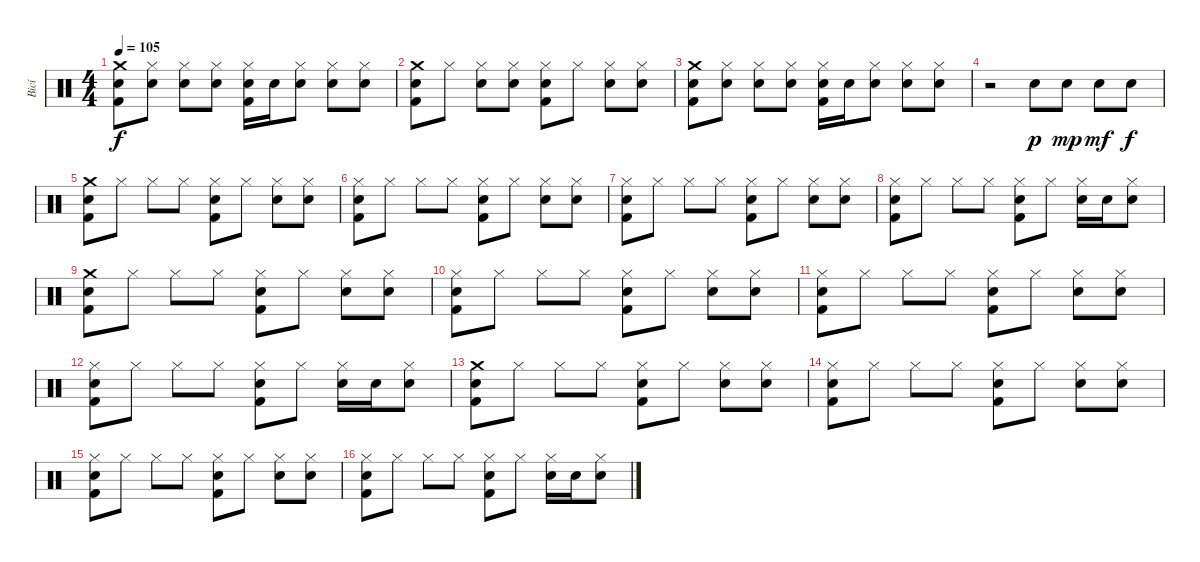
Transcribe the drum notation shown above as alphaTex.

\track ("Bicí" "Bicí") {instrument percussion}
\staff {score}
\articulation defaults
\ts (4 4)
\tempo 105
\clef neutral
\ks c
("Crash medium (hit)" "Electric Snare (hit)" "Kick (hit) 2").8{dy f} ("Hi-Hat (closed)" "Electric Snare (hit)").8 ("Hi-Hat (closed)" "Electric Snare (hit)").8 ("Hi-Hat (closed)" "Electric Snare (hit)").8 ("Hi-Hat (closed)" "Electric Snare (hit)" "Kick (hit) 2").16 "Electric Snare (hit)".16 ("Hi-Hat (closed)" "Electric Snare (hit)").8 ("Hi-Hat (closed)" "Electric Snare (hit)").8 ("Hi-Hat (closed)" "Electric Snare (hit)").8 |
("Crash medium (hit)" "Electric Snare (hit)" "Kick (hit) 2").8 "Hi-Hat (closed)".8 ("Hi-Hat (closed)" "Electric Snare (hit)").8 ("Hi-Hat (closed)" "Electric Snare (hit)").8 ("Hi-Hat (closed)" "Electric Snare (hit)" "Kick (hit) 2").8 "Hi-Hat (closed)".8 ("Hi-Hat (closed)" "Electric Snare (hit)").8 ("Hi-Hat (closed)" "Electric Snare (hit)").8 |
("Crash medium (hit)" "Electric Snare (hit)" "Kick (hit) 2").8 ("Hi-Hat (closed)" "Electric Snare (hit)").8 ("Hi-Hat (closed)" "Electric Snare (hit)").8 ("Hi-Hat (closed)" "Electric Snare (hit)").8 ("Hi-Hat (closed)" "Electric Snare (hit)" "Kick (hit) 2").16 "Electric Snare (hit)".16 ("Hi-Hat (closed)" "Electric Snare (hit)").8 ("Hi-Hat (closed)" "Electric Snare (hit)").8 ("Hi-Hat (closed)" "Electric Snare (hit)").8 |
r.2 "Electric Snare (hit)".8{dy p} "Electric Snare (hit)".8{dy mp} "Electric Snare (hit)".8{dy mf} "Electric Snare (hit)".8{dy f} |
("Crash medium (hit)" "Electric Snare (hit)" "Kick (hit) 2").8 "Hi-Hat (closed)".8 "Hi-Hat (closed)".8 "Hi-Hat (closed)".8 ("Hi-Hat (closed)" "Electric Snare (hit)" "Kick (hit) 2").8 "Hi-Hat (closed)".8 ("Hi-Hat (closed)" "Electric Snare (hit)").8 ("Hi-Hat (closed)" "Electric Snare (hit)").8 |
("Hi-Hat (closed)" "Electric Snare (hit)" "Kick (hit) 2").8 "Hi-Hat (closed)".8 "Hi-Hat (closed)".8 "Hi-Hat (closed)".8 ("Hi-Hat (closed)" "Electric Snare (hit)" "Kick (hit) 2").8 "Hi-Hat (closed)".8 ("Hi-Hat (closed)" "Electric Snare (hit)").8 ("Hi-Hat (closed)" "Electric Snare (hit)").8 |
("Hi-Hat (closed)" "Electric Snare (hit)" "Kick (hit) 2").8 "Hi-Hat (closed)".8 "Hi-Hat (closed)".8 "Hi-Hat (closed)".8 ("Hi-Hat (closed)" "Electric Snare (hit)" "Kick (hit) 2").8 "Hi-Hat (closed)".8 ("Hi-Hat (closed)" "Electric Snare (hit)").8 ("Hi-Hat (closed)" "Electric Snare (hit)").8 |
("Hi-Hat (closed)" "Electric Snare (hit)" "Kick (hit) 2").8 "Hi-Hat (closed)".8 "Hi-Hat (closed)".8 "Hi-Hat (closed)".8 ("Hi-Hat (closed)" "Electric Snare (hit)" "Kick (hit) 2").8 "Hi-Hat (closed)".8 ("Hi-Hat (closed)" "Electric Snare (hit)").16 "Electric Snare (hit)".16 ("Hi-Hat (closed)" "Electric Snare (hit)").8 |
("Crash medium (hit)" "Electric Snare (hit)" "Kick (hit) 2").8 "Hi-Hat (closed)".8 "Hi-Hat (closed)".8 "Hi-Hat (closed)".8 ("Hi-Hat (closed)" "Electric Snare (hit)" "Kick (hit) 2").8 "Hi-Hat (closed)".8 ("Hi-Hat (closed)" "Electric Snare (hit)").8 ("Hi-Hat (closed)" "Electric Snare (hit)").8 |
("Hi-Hat (closed)" "Electric Snare (hit)" "Kick (hit) 2").8 "Hi-Hat (closed)".8 "Hi-Hat (closed)".8 "Hi-Hat (closed)".8 ("Hi-Hat (closed)" "Electric Snare (hit)" "Kick (hit) 2").8 "Hi-Hat (closed)".8 ("Hi-Hat (closed)" "Electric Snare (hit)").8 ("Hi-Hat (closed)" "Electric Snare (hit)").8 |
("Hi-Hat (closed)" "Electric Snare (hit)" "Kick (hit) 2").8 "Hi-Hat (closed)".8 "Hi-Hat (closed)".8 "Hi-Hat (closed)".8 ("Hi-Hat (closed)" "Electric Snare (hit)" "Kick (hit) 2").8 "Hi-Hat (closed)".8 ("Hi-Hat (closed)" "Electric Snare (hit)").8 ("Hi-Hat (closed)" "Electric Snare (hit)").8 |
("Hi-Hat (closed)" "Electric Snare (hit)" "Kick (hit) 2").8 "Hi-Hat (closed)".8 "Hi-Hat (closed)".8 "Hi-Hat (closed)".8 ("Hi-Hat (closed)" "Electric Snare (hit)" "Kick (hit) 2").8 "Hi-Hat (closed)".8 ("Hi-Hat (closed)" "Electric Snare (hit)").16 "Electric Snare (hit)".16 ("Hi-Hat (closed)" "Electric Snare (hit)").8 |
("Crash medium (hit)" "Electric Snare (hit)" "Kick (hit) 2").8 "Hi-Hat (closed)".8 "Hi-Hat (closed)".8 "Hi-Hat (closed)".8 ("Hi-Hat (closed)" "Electric Snare (hit)" "Kick (hit) 2").8 "Hi-Hat (closed)".8 ("Hi-Hat (closed)" "Electric Snare (hit)").8 ("Hi-Hat (closed)" "Electric Snare (hit)").8 |
("Hi-Hat (closed)" "Electric Snare (hit)" "Kick (hit) 2").8 "Hi-Hat (closed)".8 "Hi-Hat (closed)".8 "Hi-Hat (closed)".8 ("Hi-Hat (closed)" "Electric Snare (hit)" "Kick (hit) 2").8 "Hi-Hat (closed)".8 ("Hi-Hat (closed)" "Electric Snare (hit)").8 ("Hi-Hat (closed)" "Electric Snare (hit)").8 |
("Hi-Hat (closed)" "Electric Snare (hit)" "Kick (hit) 2").8 "Hi-Hat (closed)".8 "Hi-Hat (closed)".8 "Hi-Hat (closed)".8 ("Hi-Hat (closed)" "Electric Snare (hit)" "Kick (hit) 2").8 "Hi-Hat (closed)".8 ("Hi-Hat (closed)" "Electric Snare (hit)").8 ("Hi-Hat (closed)" "Electric Snare (hit)").8 |
("Hi-Hat (closed)" "Electric Snare (hit)" "Kick (hit) 2").8 "Hi-Hat (closed)".8 "Hi-Hat (closed)".8 "Hi-Hat (closed)".8 ("Hi-Hat (closed)" "Electric Snare (hit)" "Kick (hit) 2").8 "Hi-Hat (closed)".8 ("Hi-Hat (closed)" "Electric Snare (hit)").16 "Electric Snare (hit)".16 ("Hi-Hat (closed)" "Electric Snare (hit)").8
